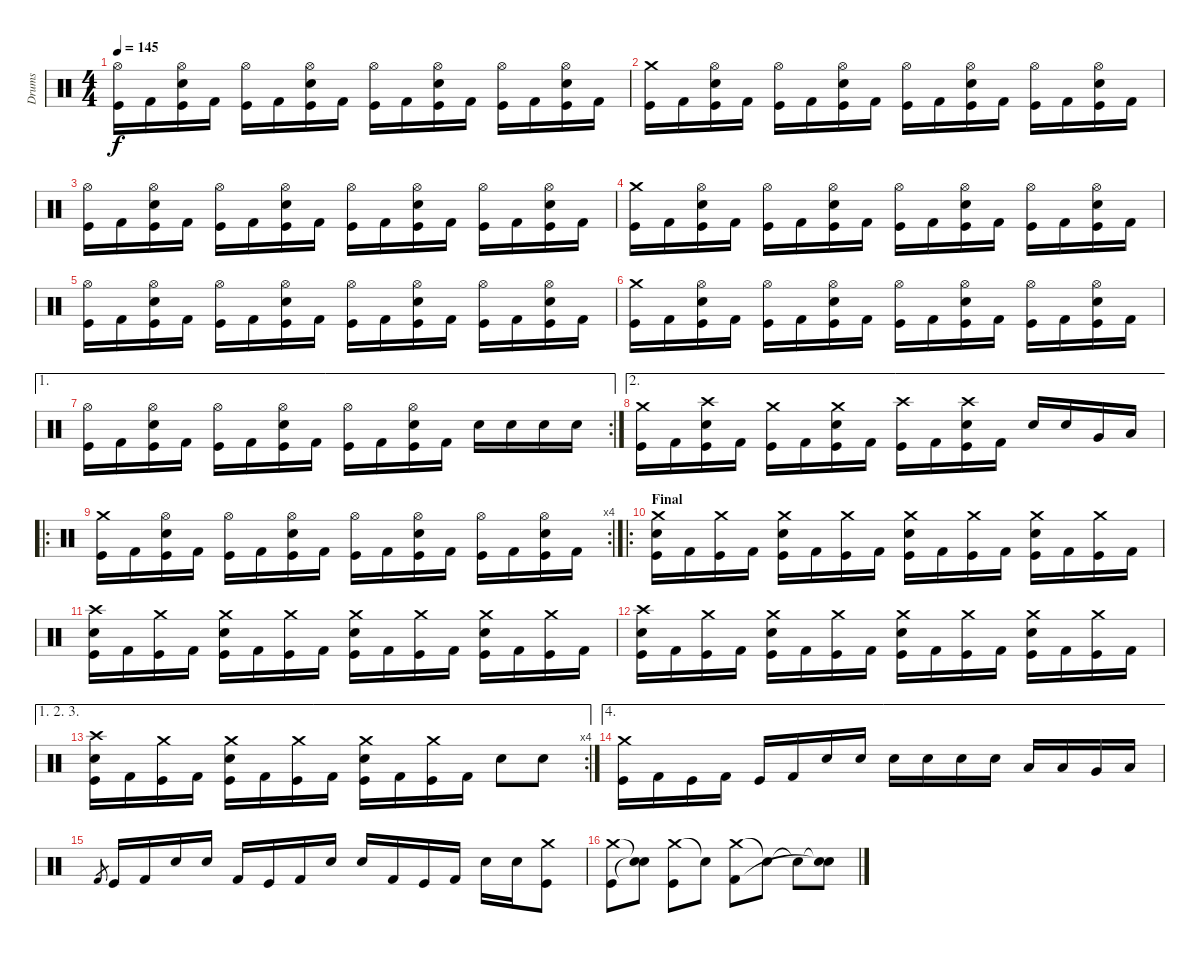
\track ("Drums" "Drums") {instrument percussion}
\staff {score}
\articulation defaults
\ts (4 4)
\tempo 145
\clef neutral
\ks c
("Hi-Hat (open)" "Kick (hit)").16{dy f} "Kick (hit) 2".16 ("Hi-Hat (open)" "Electric Snare (hit)" "Kick (hit)").16 "Kick (hit) 2".16 ("Hi-Hat (open)" "Kick (hit)").16 "Kick (hit) 2".16 ("Hi-Hat (open)" "Electric Snare (hit)" "Kick (hit)").16 "Kick (hit) 2".16 ("Hi-Hat (open)" "Kick (hit)").16 "Kick (hit) 2".16 ("Hi-Hat (open)" "Electric Snare (hit)" "Kick (hit)").16 "Kick (hit) 2".16 ("Hi-Hat (open)" "Kick (hit)").16 "Kick (hit) 2".16 ("Hi-Hat (open)" "Electric Snare (hit)" "Kick (hit)").16 "Kick (hit) 2".16 |
("Crash medium (hit)" "Kick (hit)").16 "Kick (hit) 2".16 ("Hi-Hat (open)" "Electric Snare (hit)" "Kick (hit)").16 "Kick (hit) 2".16 ("Hi-Hat (open)" "Kick (hit)").16 "Kick (hit) 2".16 ("Hi-Hat (open)" "Electric Snare (hit)" "Kick (hit)").16 "Kick (hit) 2".16 ("Hi-Hat (open)" "Kick (hit)").16 "Kick (hit) 2".16 ("Hi-Hat (open)" "Electric Snare (hit)" "Kick (hit)").16 "Kick (hit) 2".16 ("Hi-Hat (open)" "Kick (hit)").16 "Kick (hit) 2".16 ("Hi-Hat (open)" "Electric Snare (hit)" "Kick (hit)").16 "Kick (hit) 2".16 |
("Hi-Hat (open)" "Kick (hit)").16 "Kick (hit) 2".16 ("Hi-Hat (open)" "Electric Snare (hit)" "Kick (hit)").16 "Kick (hit) 2".16 ("Hi-Hat (open)" "Kick (hit)").16 "Kick (hit) 2".16 ("Hi-Hat (open)" "Electric Snare (hit)" "Kick (hit)").16 "Kick (hit) 2".16 ("Hi-Hat (open)" "Kick (hit)").16 "Kick (hit) 2".16 ("Hi-Hat (open)" "Electric Snare (hit)" "Kick (hit)").16 "Kick (hit) 2".16 ("Hi-Hat (open)" "Kick (hit)").16 "Kick (hit) 2".16 ("Hi-Hat (open)" "Electric Snare (hit)" "Kick (hit)").16 "Kick (hit) 2".16 |
("Crash medium (hit)" "Kick (hit)").16 "Kick (hit) 2".16 ("Hi-Hat (open)" "Electric Snare (hit)" "Kick (hit)").16 "Kick (hit) 2".16 ("Hi-Hat (open)" "Kick (hit)").16 "Kick (hit) 2".16 ("Hi-Hat (open)" "Electric Snare (hit)" "Kick (hit)").16 "Kick (hit) 2".16 ("Hi-Hat (open)" "Kick (hit)").16 "Kick (hit) 2".16 ("Hi-Hat (open)" "Electric Snare (hit)" "Kick (hit)").16 "Kick (hit) 2".16 ("Hi-Hat (open)" "Kick (hit)").16 "Kick (hit) 2".16 ("Hi-Hat (open)" "Electric Snare (hit)" "Kick (hit)").16 "Kick (hit) 2".16 |
("Hi-Hat (open)" "Kick (hit)").16 "Kick (hit) 2".16 ("Hi-Hat (open)" "Electric Snare (hit)" "Kick (hit)").16 "Kick (hit) 2".16 ("Hi-Hat (open)" "Kick (hit)").16 "Kick (hit) 2".16 ("Hi-Hat (open)" "Electric Snare (hit)" "Kick (hit)").16 "Kick (hit) 2".16 ("Hi-Hat (open)" "Kick (hit)").16 "Kick (hit) 2".16 ("Hi-Hat (open)" "Electric Snare (hit)" "Kick (hit)").16 "Kick (hit) 2".16 ("Hi-Hat (open)" "Kick (hit)").16 "Kick (hit) 2".16 ("Hi-Hat (open)" "Electric Snare (hit)" "Kick (hit)").16 "Kick (hit) 2".16 |
("Crash medium (hit)" "Kick (hit)").16 "Kick (hit) 2".16 ("Hi-Hat (open)" "Electric Snare (hit)" "Kick (hit)").16 "Kick (hit) 2".16 ("Hi-Hat (open)" "Kick (hit)").16 "Kick (hit) 2".16 ("Hi-Hat (open)" "Electric Snare (hit)" "Kick (hit)").16 "Kick (hit) 2".16 ("Hi-Hat (open)" "Kick (hit)").16 "Kick (hit) 2".16 ("Hi-Hat (open)" "Electric Snare (hit)" "Kick (hit)").16 "Kick (hit) 2".16 ("Hi-Hat (open)" "Kick (hit)").16 "Kick (hit) 2".16 ("Hi-Hat (open)" "Electric Snare (hit)" "Kick (hit)").16 "Kick (hit) 2".16 |
\ae 1
\rc 2
("Hi-Hat (open)" "Kick (hit)").16 "Kick (hit) 2".16 ("Hi-Hat (open)" "Electric Snare (hit)" "Kick (hit)").16 "Kick (hit) 2".16 ("Hi-Hat (open)" "Kick (hit)").16 "Kick (hit) 2".16 ("Hi-Hat (open)" "Electric Snare (hit)" "Kick (hit)").16 "Kick (hit) 2".16 ("Hi-Hat (open)" "Kick (hit)").16 "Kick (hit) 2".16 ("Hi-Hat (open)" "Electric Snare (hit)" "Kick (hit)").16 "Kick (hit) 2".16 "Electric Snare (hit)".16 "Electric Snare (hit)".16 "Electric Snare (hit)".16 "Electric Snare (hit)".16 |
\ae 2
("Crash medium (hit)" "Kick (hit)").16 "Kick (hit) 2".16 ("Crash high (hit)" "Electric Snare (hit)" "Kick (hit)").16 "Kick (hit) 2".16 ("Crash medium (hit)" "Kick (hit)").16 "Kick (hit) 2".16 ("Crash medium (hit)" "Electric Snare (hit)" "Kick (hit)").16 "Kick (hit) 2".16 ("Crash high (hit)" "Kick (hit)").16 "Kick (hit) 2".16 ("Crash high (hit)" "Electric Snare (hit)" "Kick (hit)").16 "Kick (hit) 2".16 "Electric Snare (hit)".16 "Electric Snare (hit)".16 "Very Low Tom (hit)".16 "Low Floor Tom (hit)".16 |
\ro
\rc 4
("Crash medium (hit)" "Kick (hit)").16 "Kick (hit) 2".16 ("Hi-Hat (open)" "Electric Snare (hit)" "Kick (hit)").16 "Kick (hit) 2".16 ("Hi-Hat (open)" "Kick (hit)").16 "Kick (hit) 2".16 ("Hi-Hat (open)" "Electric Snare (hit)" "Kick (hit)").16 "Kick (hit) 2".16 ("Hi-Hat (open)" "Kick (hit)").16 "Kick (hit) 2".16 ("Hi-Hat (open)" "Electric Snare (hit)" "Kick (hit)").16 "Kick (hit) 2".16 ("Hi-Hat (open)" "Kick (hit)").16 "Kick (hit) 2".16 ("Hi-Hat (open)" "Electric Snare (hit)" "Kick (hit)").16 "Kick (hit) 2".16 |
\ro
\section ("" "Final")
("Crash medium (hit)" "Electric Snare (hit)" "Kick (hit)").16 "Kick (hit) 2".16 ("Crash medium (hit)" "Kick (hit)").16 "Kick (hit) 2".16 ("Crash medium (hit)" "Electric Snare (hit)" "Kick (hit)").16 "Kick (hit) 2".16 ("Crash medium (hit)" "Kick (hit)").16 "Kick (hit) 2".16 ("Crash medium (hit)" "Electric Snare (hit)" "Kick (hit)").16 "Kick (hit) 2".16 ("Crash medium (hit)" "Kick (hit)").16 "Kick (hit) 2".16 ("Crash medium (hit)" "Electric Snare (hit)" "Kick (hit)").16 "Kick (hit) 2".16 ("Crash medium (hit)" "Kick (hit)").16 "Kick (hit) 2".16 |
("Crash high (hit)" "Electric Snare (hit)" "Kick (hit)").16 "Kick (hit) 2".16 ("Crash medium (hit)" "Kick (hit)").16 "Kick (hit) 2".16 ("Crash medium (hit)" "Electric Snare (hit)" "Kick (hit)").16 "Kick (hit) 2".16 ("Crash medium (hit)" "Kick (hit)").16 "Kick (hit) 2".16 ("Crash medium (hit)" "Electric Snare (hit)" "Kick (hit)").16 "Kick (hit) 2".16 ("Crash medium (hit)" "Kick (hit)").16 "Kick (hit) 2".16 ("Crash medium (hit)" "Electric Snare (hit)" "Kick (hit)").16 "Kick (hit) 2".16 ("Crash medium (hit)" "Kick (hit)").16 "Kick (hit) 2".16 |
("Crash high (hit)" "Electric Snare (hit)" "Kick (hit)").16 "Kick (hit) 2".16 ("Crash medium (hit)" "Kick (hit)").16 "Kick (hit) 2".16 ("Crash medium (hit)" "Electric Snare (hit)" "Kick (hit)").16 "Kick (hit) 2".16 ("Crash medium (hit)" "Kick (hit)").16 "Kick (hit) 2".16 ("Crash medium (hit)" "Electric Snare (hit)" "Kick (hit)").16 "Kick (hit) 2".16 ("Crash medium (hit)" "Kick (hit)").16 "Kick (hit) 2".16 ("Crash medium (hit)" "Electric Snare (hit)" "Kick (hit)").16 "Kick (hit) 2".16 ("Crash medium (hit)" "Kick (hit)").16 "Kick (hit) 2".16 |
\ae (1 2 3)
\rc 4
("Crash high (hit)" "Electric Snare (hit)" "Kick (hit)").16 "Kick (hit) 2".16 ("Crash medium (hit)" "Kick (hit)").16 "Kick (hit) 2".16 ("Crash medium (hit)" "Electric Snare (hit)" "Kick (hit)").16 "Kick (hit) 2".16 ("Crash medium (hit)" "Kick (hit)").16 "Kick (hit) 2".16 ("Crash medium (hit)" "Electric Snare (hit)" "Kick (hit)").16 "Kick (hit) 2".16 ("Crash medium (hit)" "Kick (hit)").16 "Kick (hit) 2".16 "Electric Snare (hit)".8 "Electric Snare (hit)".8 |
\ae 4
("Crash medium (hit)" "Kick (hit)").16 "Kick (hit) 2".16 "Kick (hit)".16 "Kick (hit) 2".16 "Kick (hit)".16 "Kick (hit) 2".16 "Electric Snare (hit)".16 "Electric Snare (hit)".16 "Electric Snare (hit)".16 "Electric Snare (hit)".16 "Electric Snare (hit)".16 "Electric Snare (hit)".16 "Low Tom (hit)".16 "Low Tom (hit)".16 "Very Low Tom (hit)".16 "Low Floor Tom (hit)".16 |
"Kick (hit) 2".8{gr} "Kick (hit)".16 "Kick (hit) 2".16 "Electric Snare (hit)".16 "Electric Snare (hit)".16 "Kick (hit) 2".16 "Kick (hit)".16 "Kick (hit) 2".16 "Electric Snare (hit)".16 "Electric Snare (hit)".16 "Kick (hit) 2".16 "Kick (hit)".16 "Kick (hit) 2".16 "Electric Snare (hit)".16 "Electric Snare (hit)".16 ("Crash medium (hit)" "Kick (hit)").8 |
("Crash medium (hit)" "Kick (hit)").8 ("Snare (hit)"{t} "Snare (hit)"{t}).8 ("Crash medium (hit)" "Kick (hit)").8 "Snare (hit)"{t}.8 ("Crash medium (hit)" "Kick (hit) 2").8 "Snare (hit)"{t}.8 "Snare (hit)"{t}.8 ("Snare (hit)"{t} "Snare (hit)"{t}).8
